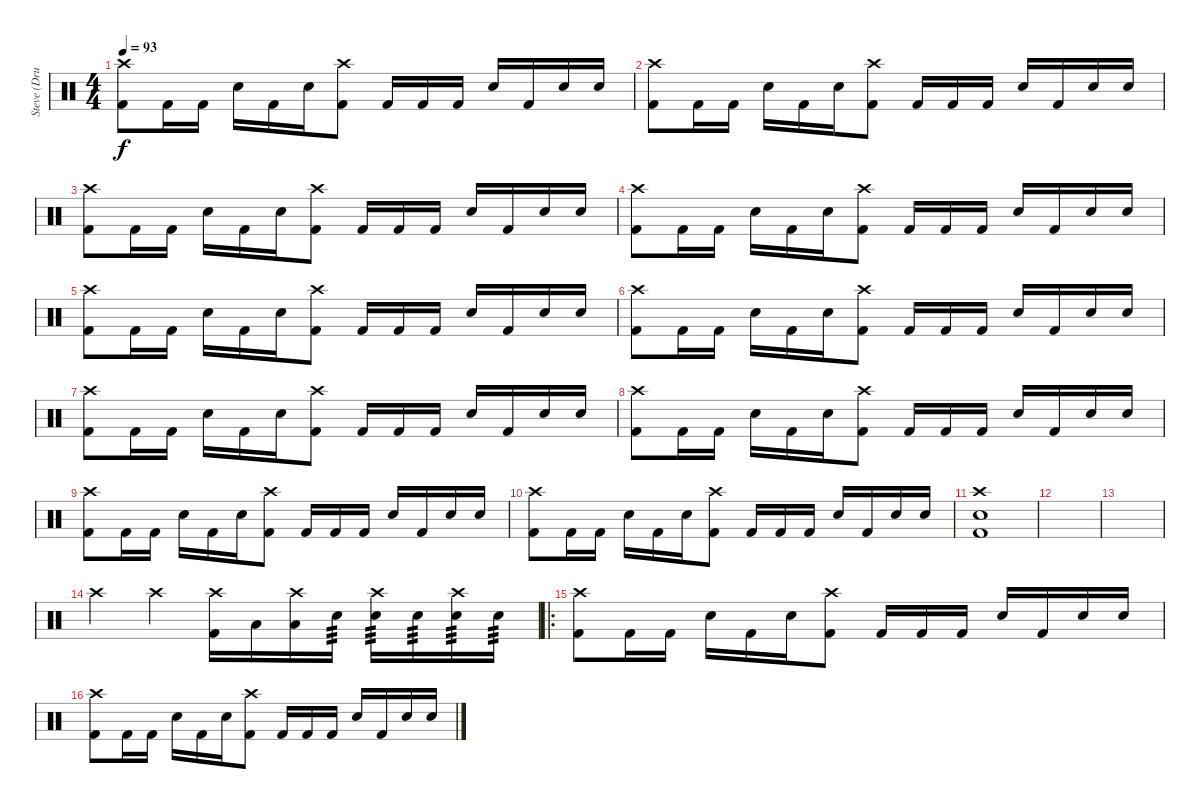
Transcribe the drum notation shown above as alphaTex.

\track ("Steve (Drums)" "Steve (Dru") {instrument percussion}
\staff {score}
\articulation defaults
\ts (4 4)
\tempo 93
\clef neutral
\ks c
("Crash high (hit)" "Kick (hit) 2").8{dy f} "Kick (hit) 2".16 "Kick (hit) 2".16 "Electric Snare (hit)".16 "Kick (hit) 2".16 "Electric Snare (hit)".16 ("Crash high (hit)" "Kick (hit) 2").8 "Kick (hit) 2".16 "Kick (hit) 2".16 "Kick (hit) 2".16 "Electric Snare (hit)".16 "Kick (hit) 2".16 "Electric Snare (hit)".16 "Electric Snare (hit)".16 |
("Crash high (hit)" "Kick (hit) 2").8 "Kick (hit) 2".16 "Kick (hit) 2".16 "Electric Snare (hit)".16 "Kick (hit) 2".16 "Electric Snare (hit)".16 ("Crash high (hit)" "Kick (hit) 2").8 "Kick (hit) 2".16 "Kick (hit) 2".16 "Kick (hit) 2".16 "Electric Snare (hit)".16 "Kick (hit) 2".16 "Electric Snare (hit)".16 "Electric Snare (hit)".16 |
("Crash high (hit)" "Kick (hit) 2").8 "Kick (hit) 2".16 "Kick (hit) 2".16 "Electric Snare (hit)".16 "Kick (hit) 2".16 "Electric Snare (hit)".16 ("Crash high (hit)" "Kick (hit) 2").8 "Kick (hit) 2".16 "Kick (hit) 2".16 "Kick (hit) 2".16 "Electric Snare (hit)".16 "Kick (hit) 2".16 "Electric Snare (hit)".16 "Electric Snare (hit)".16 |
("Crash high (hit)" "Kick (hit) 2").8 "Kick (hit) 2".16 "Kick (hit) 2".16 "Electric Snare (hit)".16 "Kick (hit) 2".16 "Electric Snare (hit)".16 ("Crash high (hit)" "Kick (hit) 2").8 "Kick (hit) 2".16 "Kick (hit) 2".16 "Kick (hit) 2".16 "Electric Snare (hit)".16 "Kick (hit) 2".16 "Electric Snare (hit)".16 "Electric Snare (hit)".16 |
("Crash high (hit)" "Kick (hit) 2").8 "Kick (hit) 2".16 "Kick (hit) 2".16 "Electric Snare (hit)".16 "Kick (hit) 2".16 "Electric Snare (hit)".16 ("Crash high (hit)" "Kick (hit) 2").8 "Kick (hit) 2".16 "Kick (hit) 2".16 "Kick (hit) 2".16 "Electric Snare (hit)".16 "Kick (hit) 2".16 "Electric Snare (hit)".16 "Electric Snare (hit)".16 |
("Crash high (hit)" "Kick (hit) 2").8 "Kick (hit) 2".16 "Kick (hit) 2".16 "Electric Snare (hit)".16 "Kick (hit) 2".16 "Electric Snare (hit)".16 ("Crash high (hit)" "Kick (hit) 2").8 "Kick (hit) 2".16 "Kick (hit) 2".16 "Kick (hit) 2".16 "Electric Snare (hit)".16 "Kick (hit) 2".16 "Electric Snare (hit)".16 "Electric Snare (hit)".16 |
("Crash high (hit)" "Kick (hit) 2").8 "Kick (hit) 2".16 "Kick (hit) 2".16 "Electric Snare (hit)".16 "Kick (hit) 2".16 "Electric Snare (hit)".16 ("Crash high (hit)" "Kick (hit) 2").8 "Kick (hit) 2".16 "Kick (hit) 2".16 "Kick (hit) 2".16 "Electric Snare (hit)".16 "Kick (hit) 2".16 "Electric Snare (hit)".16 "Electric Snare (hit)".16 |
("Crash high (hit)" "Kick (hit) 2").8 "Kick (hit) 2".16 "Kick (hit) 2".16 "Electric Snare (hit)".16 "Kick (hit) 2".16 "Electric Snare (hit)".16 ("Crash high (hit)" "Kick (hit) 2").8 "Kick (hit) 2".16 "Kick (hit) 2".16 "Kick (hit) 2".16 "Electric Snare (hit)".16 "Kick (hit) 2".16 "Electric Snare (hit)".16 "Electric Snare (hit)".16 |
("Crash high (hit)" "Kick (hit) 2").8 "Kick (hit) 2".16 "Kick (hit) 2".16 "Electric Snare (hit)".16 "Kick (hit) 2".16 "Electric Snare (hit)".16 ("Crash high (hit)" "Kick (hit) 2").8 "Kick (hit) 2".16 "Kick (hit) 2".16 "Kick (hit) 2".16 "Electric Snare (hit)".16 "Kick (hit) 2".16 "Electric Snare (hit)".16 "Electric Snare (hit)".16 |
("Crash high (hit)" "Kick (hit) 2").8 "Kick (hit) 2".16 "Kick (hit) 2".16 "Electric Snare (hit)".16 "Kick (hit) 2".16 "Electric Snare (hit)".16 ("Crash high (hit)" "Kick (hit) 2").8 "Kick (hit) 2".16 "Kick (hit) 2".16 "Kick (hit) 2".16 "Electric Snare (hit)".16 "Kick (hit) 2".16 "Electric Snare (hit)".16 "Electric Snare (hit)".16 |
("Crash high (hit)" "Electric Snare (hit)" "Kick (hit) 2").1 |
|
|
"Crash high (hit)".4 "Crash high (hit)".4 ("Crash high (hit)" "Kick (hit) 2").16 "Low Floor Tom (hit)".16 ("Crash high (hit)" "Low Floor Tom (hit)").16 "Electric Snare (hit)".16{tp 3} ("Crash high (hit)" "Electric Snare (hit)").16{tp 3} "Electric Snare (hit)".16{tp 3} ("Crash high (hit)" "Electric Snare (hit)").16{tp 3} "Electric Snare (hit)".16{tp 3} |
\ro
("Crash high (hit)" "Kick (hit) 2").8 "Kick (hit) 2".16 "Kick (hit) 2".16 "Electric Snare (hit)".16 "Kick (hit) 2".16 "Electric Snare (hit)".16 ("Crash high (hit)" "Kick (hit) 2").8 "Kick (hit) 2".16 "Kick (hit) 2".16 "Kick (hit) 2".16 "Electric Snare (hit)".16 "Kick (hit) 2".16 "Electric Snare (hit)".16 "Electric Snare (hit)".16 |
("Crash high (hit)" "Kick (hit) 2").8 "Kick (hit) 2".16 "Kick (hit) 2".16 "Electric Snare (hit)".16 "Kick (hit) 2".16 "Electric Snare (hit)".16 ("Crash high (hit)" "Kick (hit) 2").8 "Kick (hit) 2".16 "Kick (hit) 2".16 "Kick (hit) 2".16 "Electric Snare (hit)".16 "Kick (hit) 2".16 "Electric Snare (hit)".16 "Electric Snare (hit)".16
